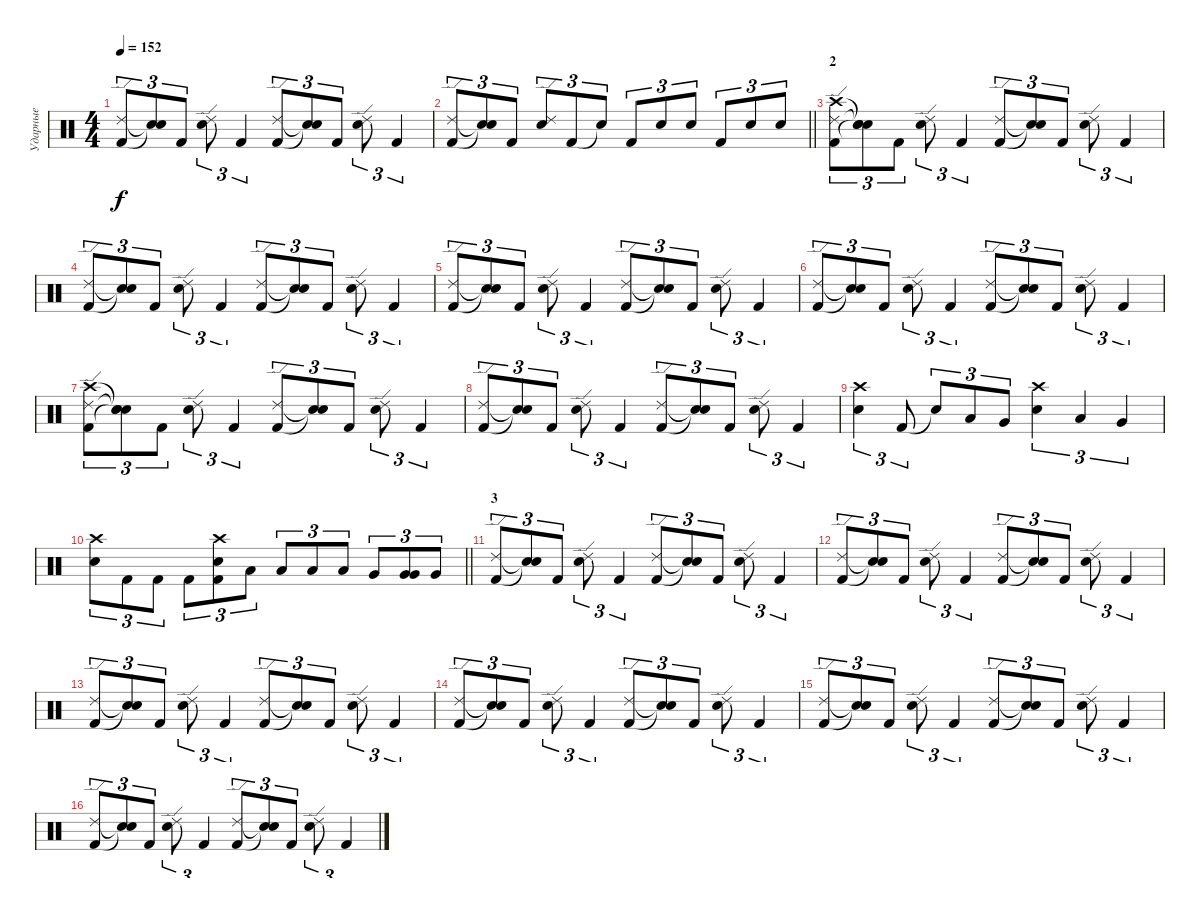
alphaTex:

\track ("Ударные" "Ударные") {instrument percussion}
\staff {score}
\articulation defaults
\ts (4 4)
\tempo 152
\clef neutral
\ks c
("Kick (hit) 2" "Ride (edge) 2").8{tu (3 2) dy f} ("Snare (hit)"{t} "Snare (hit)"{t}).8{tu (3 2)} "Kick (hit) 2".8{tu (3 2)} ("Electric Snare (hit)" "Ride (edge) 2").8{tu (3 2)} "Kick (hit) 2".4{tu (3 2)} ("Kick (hit) 2" "Ride (edge) 2").8{tu (3 2)} ("Snare (hit)"{t} "Snare (hit)"{t}).8{tu (3 2)} "Kick (hit) 2".8{tu (3 2)} ("Electric Snare (hit)" "Ride (edge) 2").8{tu (3 2)} "Kick (hit) 2".4{tu (3 2)} |
\barLineRight lightlight
("Kick (hit) 2" "Ride (edge) 2").8{tu (3 2)} ("Snare (hit)"{t} "Snare (hit)"{t}).8{tu (3 2)} "Kick (hit) 2".8{tu (3 2)} ("Electric Snare (hit)" "Ride (edge) 2").8{tu (3 2)} "Kick (hit) 2".8{tu (3 2)} "Snare (hit)"{t}.8{tu (3 2)} "Kick (hit) 2".8{tu (3 2)} "Electric Snare (hit)".8{tu (3 2)} "Electric Snare (hit)".8{tu (3 2)} "Kick (hit) 2".8{tu (3 2)} "Electric Snare (hit)".8{tu (3 2)} "Electric Snare (hit)".8{tu (3 2)} |
\section ("" "2")
("Kick (hit) 2" "Crash high (hit)" "Ride (edge) 2").8{tu (3 2)} ("Snare (hit)"{t} "Snare (hit)"{t} "Snare (hit)"{t}).8{tu (3 2)} "Kick (hit) 2".8{tu (3 2)} ("Electric Snare (hit)" "Ride (edge) 2").8{tu (3 2)} "Kick (hit) 2".4{tu (3 2)} ("Kick (hit) 2" "Ride (edge) 2").8{tu (3 2)} ("Snare (hit)"{t} "Snare (hit)"{t}).8{tu (3 2)} "Kick (hit) 2".8{tu (3 2)} ("Electric Snare (hit)" "Ride (edge) 2").8{tu (3 2)} "Kick (hit) 2".4{tu (3 2)} |
("Kick (hit) 2" "Ride (edge) 2").8{tu (3 2)} ("Snare (hit)"{t} "Snare (hit)"{t}).8{tu (3 2)} "Kick (hit) 2".8{tu (3 2)} ("Electric Snare (hit)" "Ride (edge) 2").8{tu (3 2)} "Kick (hit) 2".4{tu (3 2)} ("Kick (hit) 2" "Ride (edge) 2").8{tu (3 2)} ("Snare (hit)"{t} "Snare (hit)"{t}).8{tu (3 2)} "Kick (hit) 2".8{tu (3 2)} ("Electric Snare (hit)" "Ride (edge) 2").8{tu (3 2)} "Kick (hit) 2".4{tu (3 2)} |
("Kick (hit) 2" "Ride (edge) 2").8{tu (3 2)} ("Snare (hit)"{t} "Snare (hit)"{t}).8{tu (3 2)} "Kick (hit) 2".8{tu (3 2)} ("Electric Snare (hit)" "Ride (edge) 2").8{tu (3 2)} "Kick (hit) 2".4{tu (3 2)} ("Kick (hit) 2" "Ride (edge) 2").8{tu (3 2)} ("Snare (hit)"{t} "Snare (hit)"{t}).8{tu (3 2)} "Kick (hit) 2".8{tu (3 2)} ("Electric Snare (hit)" "Ride (edge) 2").8{tu (3 2)} "Kick (hit) 2".4{tu (3 2)} |
("Kick (hit) 2" "Ride (edge) 2").8{tu (3 2)} ("Snare (hit)"{t} "Snare (hit)"{t}).8{tu (3 2)} "Kick (hit) 2".8{tu (3 2)} ("Electric Snare (hit)" "Ride (edge) 2").8{tu (3 2)} "Kick (hit) 2".4{tu (3 2)} ("Kick (hit) 2" "Ride (edge) 2").8{tu (3 2)} ("Snare (hit)"{t} "Snare (hit)"{t}).8{tu (3 2)} "Kick (hit) 2".8{tu (3 2)} ("Electric Snare (hit)" "Ride (edge) 2").8{tu (3 2)} "Kick (hit) 2".4{tu (3 2)} |
("Kick (hit) 2" "Crash high (hit)" "Ride (edge) 2").8{tu (3 2)} ("Snare (hit)"{t} "Snare (hit)"{t} "Snare (hit)"{t}).8{tu (3 2)} "Kick (hit) 2".8{tu (3 2)} ("Electric Snare (hit)" "Ride (edge) 2").8{tu (3 2)} "Kick (hit) 2".4{tu (3 2)} ("Kick (hit) 2" "Ride (edge) 2").8{tu (3 2)} ("Snare (hit)"{t} "Snare (hit)"{t}).8{tu (3 2)} "Kick (hit) 2".8{tu (3 2)} ("Electric Snare (hit)" "Ride (edge) 2").8{tu (3 2)} "Kick (hit) 2".4{tu (3 2)} |
("Kick (hit) 2" "Ride (edge) 2").8{tu (3 2)} ("Snare (hit)"{t} "Snare (hit)"{t}).8{tu (3 2)} "Kick (hit) 2".8{tu (3 2)} ("Electric Snare (hit)" "Ride (edge) 2").8{tu (3 2)} "Kick (hit) 2".4{tu (3 2)} ("Kick (hit) 2" "Ride (edge) 2").8{tu (3 2)} ("Snare (hit)"{t} "Snare (hit)"{t}).8{tu (3 2)} "Kick (hit) 2".8{tu (3 2)} ("Electric Snare (hit)" "Ride (edge) 2").8{tu (3 2)} "Kick (hit) 2".4{tu (3 2)} |
("Electric Snare (hit)" "Crash high (hit)").4{tu (3 2)} "Kick (hit) 2".8{tu (3 2)} "Snare (hit)"{t}.8{tu (3 2)} "Low Tom (hit)".8{tu (3 2)} "Very Low Tom (hit)".8{tu (3 2)} ("Electric Snare (hit)" "Crash high (hit)").4{tu (3 2)} "Low Tom (hit)".4{tu (3 2)} "Very Low Tom (hit)".4{tu (3 2)} |
\barLineRight lightlight
("Electric Snare (hit)" "Crash high (hit)").8{tu (3 2)} "Kick (hit) 2".8{tu (3 2)} "Kick (hit) 2".8{tu (3 2)} "Kick (hit) 2".8{tu (3 2)} ("Kick (hit) 2" "Electric Snare (hit)" "Crash high (hit)").8{tu (3 2)} "Low Tom (hit)".8{tu (3 2)} "Low Tom (hit)".8{tu (3 2)} "Low Tom (hit)".8{tu (3 2)} "Low Tom (hit)".8{tu (3 2)} "Very Low Tom (hit)".8{tu (3 2)} ("Very Low Tom (hit)" "Very Low Tom (hit)").8{tu (3 2)} "Very Low Tom (hit)".8{tu (3 2)} |
\section ("" "3")
("Kick (hit) 2" "Ride (edge) 2").8{tu (3 2)} ("Snare (hit)"{t} "Snare (hit)"{t}).8{tu (3 2)} "Kick (hit) 2".8{tu (3 2)} ("Electric Snare (hit)" "Ride (edge) 2").8{tu (3 2)} "Kick (hit) 2".4{tu (3 2)} ("Kick (hit) 2" "Ride (edge) 2").8{tu (3 2)} ("Snare (hit)"{t} "Snare (hit)"{t}).8{tu (3 2)} "Kick (hit) 2".8{tu (3 2)} ("Electric Snare (hit)" "Ride (edge) 2").8{tu (3 2)} "Kick (hit) 2".4{tu (3 2)} |
("Kick (hit) 2" "Ride (edge) 2").8{tu (3 2)} ("Snare (hit)"{t} "Snare (hit)"{t}).8{tu (3 2)} "Kick (hit) 2".8{tu (3 2)} ("Electric Snare (hit)" "Ride (edge) 2").8{tu (3 2)} "Kick (hit) 2".4{tu (3 2)} ("Kick (hit) 2" "Ride (edge) 2").8{tu (3 2)} ("Snare (hit)"{t} "Snare (hit)"{t}).8{tu (3 2)} "Kick (hit) 2".8{tu (3 2)} ("Electric Snare (hit)" "Ride (edge) 2").8{tu (3 2)} "Kick (hit) 2".4{tu (3 2)} |
("Kick (hit) 2" "Ride (edge) 2").8{tu (3 2)} ("Snare (hit)"{t} "Snare (hit)"{t}).8{tu (3 2)} "Kick (hit) 2".8{tu (3 2)} ("Electric Snare (hit)" "Ride (edge) 2").8{tu (3 2)} "Kick (hit) 2".4{tu (3 2)} ("Kick (hit) 2" "Ride (edge) 2").8{tu (3 2)} ("Snare (hit)"{t} "Snare (hit)"{t}).8{tu (3 2)} "Kick (hit) 2".8{tu (3 2)} ("Electric Snare (hit)" "Ride (edge) 2").8{tu (3 2)} "Kick (hit) 2".4{tu (3 2)} |
("Kick (hit) 2" "Ride (edge) 2").8{tu (3 2)} ("Snare (hit)"{t} "Snare (hit)"{t}).8{tu (3 2)} "Kick (hit) 2".8{tu (3 2)} ("Electric Snare (hit)" "Ride (edge) 2").8{tu (3 2)} "Kick (hit) 2".4{tu (3 2)} ("Kick (hit) 2" "Ride (edge) 2").8{tu (3 2)} ("Snare (hit)"{t} "Snare (hit)"{t}).8{tu (3 2)} "Kick (hit) 2".8{tu (3 2)} ("Electric Snare (hit)" "Ride (edge) 2").8{tu (3 2)} "Kick (hit) 2".4{tu (3 2)} |
("Kick (hit) 2" "Ride (edge) 2").8{tu (3 2)} ("Snare (hit)"{t} "Snare (hit)"{t}).8{tu (3 2)} "Kick (hit) 2".8{tu (3 2)} ("Electric Snare (hit)" "Ride (edge) 2").8{tu (3 2)} "Kick (hit) 2".4{tu (3 2)} ("Kick (hit) 2" "Ride (edge) 2").8{tu (3 2)} ("Snare (hit)"{t} "Snare (hit)"{t}).8{tu (3 2)} "Kick (hit) 2".8{tu (3 2)} ("Electric Snare (hit)" "Ride (edge) 2").8{tu (3 2)} "Kick (hit) 2".4{tu (3 2)} |
("Kick (hit) 2" "Ride (edge) 2").8{tu (3 2)} ("Snare (hit)"{t} "Snare (hit)"{t}).8{tu (3 2)} "Kick (hit) 2".8{tu (3 2)} ("Electric Snare (hit)" "Ride (edge) 2").8{tu (3 2)} "Kick (hit) 2".4{tu (3 2)} ("Kick (hit) 2" "Ride (edge) 2").8{tu (3 2)} ("Snare (hit)"{t} "Snare (hit)"{t}).8{tu (3 2)} "Kick (hit) 2".8{tu (3 2)} ("Electric Snare (hit)" "Ride (edge) 2").8{tu (3 2)} "Kick (hit) 2".4{tu (3 2)}
